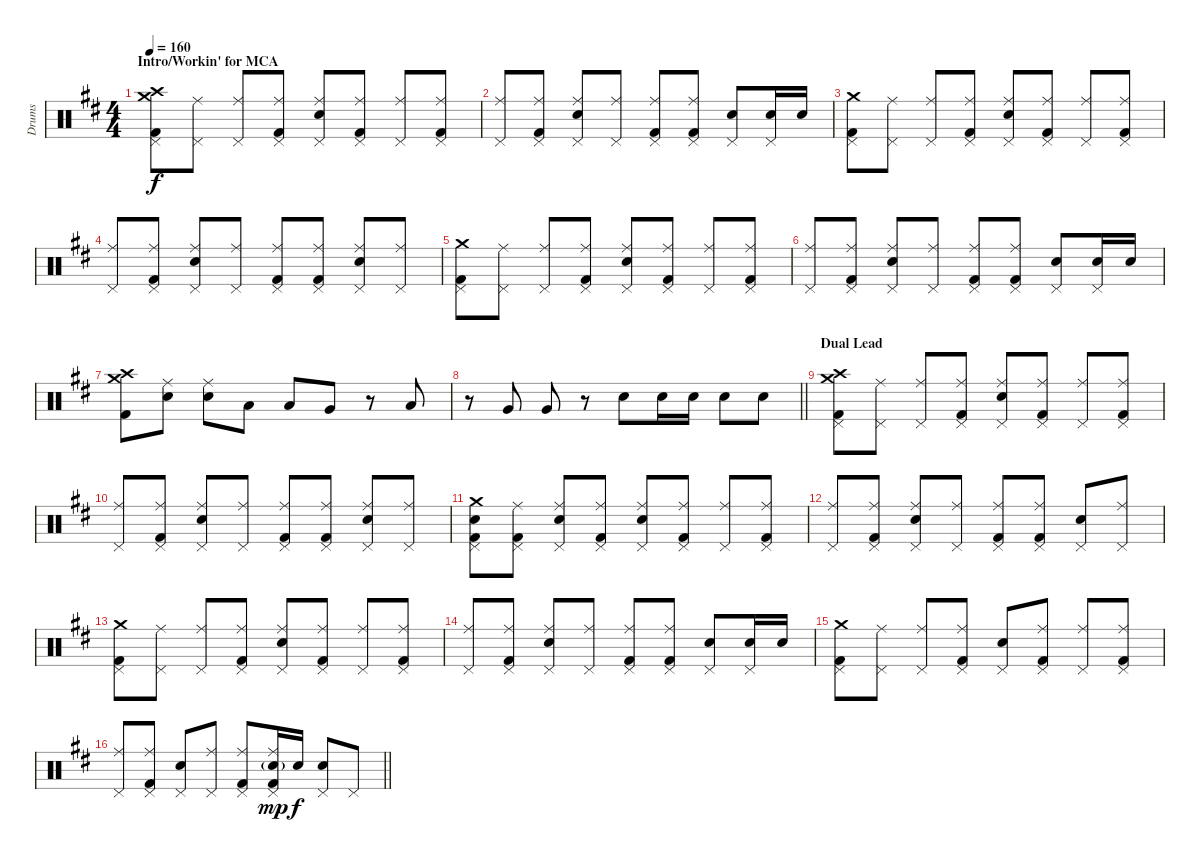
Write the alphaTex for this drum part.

\track ("Drums" "Drums") {instrument percussion}
\staff {score}
\articulation defaults
\ts (4 4)
\section ("" "Intro/Workin' for MCA")
\tempo 160
\clef neutral
\ks d
("Crash medium (hit)" "Crash high (hit)" "Pedal Hi-Hat (hit)" "Kick (hit) 2").8{dy f} ("Ride (middle)" "Pedal Hi-Hat (hit)").8 ("Ride (middle)" "Pedal Hi-Hat (hit)").8 ("Ride (middle)" "Pedal Hi-Hat (hit)" "Kick (hit) 2").8 ("Ride (middle)" "Electric Snare (hit)" "Pedal Hi-Hat (hit)").8 ("Ride (middle)" "Pedal Hi-Hat (hit)" "Kick (hit) 2").8 ("Ride (middle)" "Pedal Hi-Hat (hit)").8 ("Ride (middle)" "Pedal Hi-Hat (hit)" "Kick (hit) 2").8 |
("Ride (middle)" "Pedal Hi-Hat (hit)").8 ("Ride (middle)" "Pedal Hi-Hat (hit)" "Kick (hit) 2").8 ("Ride (middle)" "Electric Snare (hit)" "Pedal Hi-Hat (hit)").8 ("Ride (middle)" "Pedal Hi-Hat (hit)").8 ("Ride (middle)" "Pedal Hi-Hat (hit)" "Kick (hit) 2").8 ("Ride (middle)" "Pedal Hi-Hat (hit)" "Kick (hit) 2").8 ("Electric Snare (hit)" "Pedal Hi-Hat (hit)").8 ("Electric Snare (hit)" "Pedal Hi-Hat (hit)").16 "Electric Snare (hit)".16 |
("Crash medium (hit)" "Pedal Hi-Hat (hit)" "Kick (hit) 2").8 ("Ride (middle)" "Pedal Hi-Hat (hit)").8 ("Ride (middle)" "Pedal Hi-Hat (hit)").8 ("Ride (middle)" "Pedal Hi-Hat (hit)" "Kick (hit) 2").8 ("Ride (middle)" "Electric Snare (hit)" "Pedal Hi-Hat (hit)").8 ("Ride (middle)" "Pedal Hi-Hat (hit)" "Kick (hit) 2").8 ("Ride (middle)" "Pedal Hi-Hat (hit)").8 ("Ride (middle)" "Pedal Hi-Hat (hit)" "Kick (hit) 2").8 |
("Ride (middle)" "Pedal Hi-Hat (hit)").8 ("Ride (middle)" "Pedal Hi-Hat (hit)" "Kick (hit) 2").8 ("Ride (middle)" "Electric Snare (hit)" "Pedal Hi-Hat (hit)").8 ("Ride (middle)" "Pedal Hi-Hat (hit)").8 ("Ride (middle)" "Pedal Hi-Hat (hit)" "Kick (hit) 2").8 ("Ride (middle)" "Pedal Hi-Hat (hit)" "Kick (hit) 2").8 ("Ride (middle)" "Electric Snare (hit)" "Pedal Hi-Hat (hit)").8 ("Ride (middle)" "Pedal Hi-Hat (hit)").8 |
("Crash medium (hit)" "Pedal Hi-Hat (hit)" "Kick (hit) 2").8 ("Ride (middle)" "Pedal Hi-Hat (hit)").8 ("Ride (middle)" "Pedal Hi-Hat (hit)").8 ("Ride (middle)" "Pedal Hi-Hat (hit)" "Kick (hit) 2").8 ("Ride (middle)" "Electric Snare (hit)" "Pedal Hi-Hat (hit)").8 ("Ride (middle)" "Pedal Hi-Hat (hit)" "Kick (hit) 2").8 ("Ride (middle)" "Pedal Hi-Hat (hit)").8 ("Ride (middle)" "Pedal Hi-Hat (hit)" "Kick (hit) 2").8 |
("Ride (middle)" "Pedal Hi-Hat (hit)").8 ("Ride (middle)" "Pedal Hi-Hat (hit)" "Kick (hit) 2").8 ("Ride (middle)" "Electric Snare (hit)" "Pedal Hi-Hat (hit)").8 ("Ride (middle)" "Pedal Hi-Hat (hit)").8 ("Ride (middle)" "Pedal Hi-Hat (hit)" "Kick (hit) 2").8 ("Ride (middle)" "Pedal Hi-Hat (hit)" "Kick (hit) 2").8 ("Electric Snare (hit)" "Pedal Hi-Hat (hit)").8 ("Electric Snare (hit)" "Pedal Hi-Hat (hit)").16 "Electric Snare (hit)".16 |
("Crash high (hit)" "Kick (hit) 2" "Crash medium (hit)").8 ("Ride (middle)" "Electric Snare (hit)").8 ("Ride (middle)" "Electric Snare (hit)").8 "Low Tom (hit)".8 "Low Tom (hit)".8 "Very Low Tom (hit)".8 r.8 "Low Floor Tom (hit)".8 |
\barLineRight lightlight
r.8 "Very Low Tom (hit)".8 "Very Low Tom (hit)".8 r.8 "Electric Snare (hit)".8 "Electric Snare (hit)".16 "Electric Snare (hit)".16 "Electric Snare (hit)".8 "Electric Snare (hit)".8 |
\section ("" "Dual Lead")
("Crash medium (hit)" "Crash high (hit)" "Pedal Hi-Hat (hit)" "Kick (hit) 2").8 ("Ride (middle)" "Pedal Hi-Hat (hit)").8 ("Ride (middle)" "Pedal Hi-Hat (hit)").8 ("Ride (middle)" "Pedal Hi-Hat (hit)" "Kick (hit) 2").8 ("Ride (middle)" "Electric Snare (hit)" "Pedal Hi-Hat (hit)").8 ("Ride (middle)" "Pedal Hi-Hat (hit)" "Kick (hit) 2").8 ("Ride (middle)" "Pedal Hi-Hat (hit)").8 ("Ride (middle)" "Pedal Hi-Hat (hit)" "Kick (hit) 2").8 |
("Ride (middle)" "Pedal Hi-Hat (hit)").8 ("Ride (middle)" "Pedal Hi-Hat (hit)" "Kick (hit) 2").8 ("Ride (middle)" "Electric Snare (hit)" "Pedal Hi-Hat (hit)").8 ("Ride (middle)" "Pedal Hi-Hat (hit)").8 ("Ride (middle)" "Pedal Hi-Hat (hit)" "Kick (hit) 2").8 ("Ride (middle)" "Pedal Hi-Hat (hit)" "Kick (hit) 2").8 ("Ride (middle)" "Electric Snare (hit)" "Pedal Hi-Hat (hit)").8 ("Ride (middle)" "Pedal Hi-Hat (hit)").8 |
("Crash medium (hit)" "Electric Snare (hit)" "Pedal Hi-Hat (hit)" "Kick (hit) 2").8 ("Ride (middle)" "Pedal Hi-Hat (hit)" "Kick (hit) 2").8 ("Ride (middle)" "Electric Snare (hit)" "Pedal Hi-Hat (hit)").8 ("Ride (middle)" "Pedal Hi-Hat (hit)" "Kick (hit) 2").8 ("Ride (middle)" "Electric Snare (hit)" "Pedal Hi-Hat (hit)").8 ("Ride (middle)" "Pedal Hi-Hat (hit)" "Kick (hit) 2").8 ("Ride (middle)" "Pedal Hi-Hat (hit)").8 ("Ride (middle)" "Pedal Hi-Hat (hit)" "Kick (hit) 2").8 |
("Ride (middle)" "Pedal Hi-Hat (hit)").8 ("Ride (middle)" "Pedal Hi-Hat (hit)" "Kick (hit) 2").8 ("Ride (middle)" "Electric Snare (hit)" "Pedal Hi-Hat (hit)").8 ("Ride (middle)" "Pedal Hi-Hat (hit)").8 ("Ride (middle)" "Pedal Hi-Hat (hit)" "Kick (hit) 2").8 ("Ride (middle)" "Pedal Hi-Hat (hit)" "Kick (hit) 2").8 ("Electric Snare (hit)" "Pedal Hi-Hat (hit)").8 ("Ride (middle)" "Pedal Hi-Hat (hit)").8 |
("Crash medium (hit)" "Pedal Hi-Hat (hit)" "Kick (hit) 2").8 ("Ride (middle)" "Pedal Hi-Hat (hit)").8 ("Ride (middle)" "Pedal Hi-Hat (hit)").8 ("Ride (middle)" "Pedal Hi-Hat (hit)" "Kick (hit) 2").8 ("Ride (middle)" "Electric Snare (hit)" "Pedal Hi-Hat (hit)").8 ("Ride (middle)" "Pedal Hi-Hat (hit)" "Kick (hit) 2").8 ("Ride (middle)" "Pedal Hi-Hat (hit)").8 ("Ride (middle)" "Pedal Hi-Hat (hit)" "Kick (hit) 2").8 |
("Ride (middle)" "Pedal Hi-Hat (hit)").8 ("Ride (middle)" "Pedal Hi-Hat (hit)" "Kick (hit) 2").8 ("Ride (middle)" "Electric Snare (hit)" "Pedal Hi-Hat (hit)").8 ("Ride (middle)" "Pedal Hi-Hat (hit)").8 ("Ride (middle)" "Pedal Hi-Hat (hit)" "Kick (hit) 2").8 ("Ride (middle)" "Pedal Hi-Hat (hit)" "Kick (hit) 2").8 ("Electric Snare (hit)" "Pedal Hi-Hat (hit)").8 ("Snare (hit) 2" "Pedal Hi-Hat (hit)").16 "Snare (hit) 2".16 |
("Crash medium (hit)" "Pedal Hi-Hat (hit)" "Kick (hit) 2").8 ("Ride (middle)" "Pedal Hi-Hat (hit)").8 ("Ride (middle)" "Pedal Hi-Hat (hit)").8 ("Ride (middle)" "Pedal Hi-Hat (hit)" "Kick (hit) 2").8 ("Electric Snare (hit)" "Pedal Hi-Hat (hit)").8 ("Ride (middle)" "Pedal Hi-Hat (hit)" "Kick (hit) 2").8 ("Ride (middle)" "Pedal Hi-Hat (hit)").8 ("Ride (middle)" "Pedal Hi-Hat (hit)" "Kick (hit) 2").8 |
\barLineRight lightlight
("Ride (middle)" "Pedal Hi-Hat (hit)").8 ("Ride (middle)" "Pedal Hi-Hat (hit)" "Kick (hit) 2").8 ("Electric Snare (hit)" "Pedal Hi-Hat (hit)").8 ("Ride (middle)" "Pedal Hi-Hat (hit)").8 ("Ride (middle)" "Pedal Hi-Hat (hit)" "Kick (hit) 2").8 ("Ride (middle)" "Electric Snare (hit)"{g} "Pedal Hi-Hat (hit)" "Kick (hit) 2").16{dy mp} "Electric Snare (hit)".16{dy f} ("Electric Snare (hit)" "Pedal Hi-Hat (hit)").8 "Pedal Hi-Hat (hit)".8
